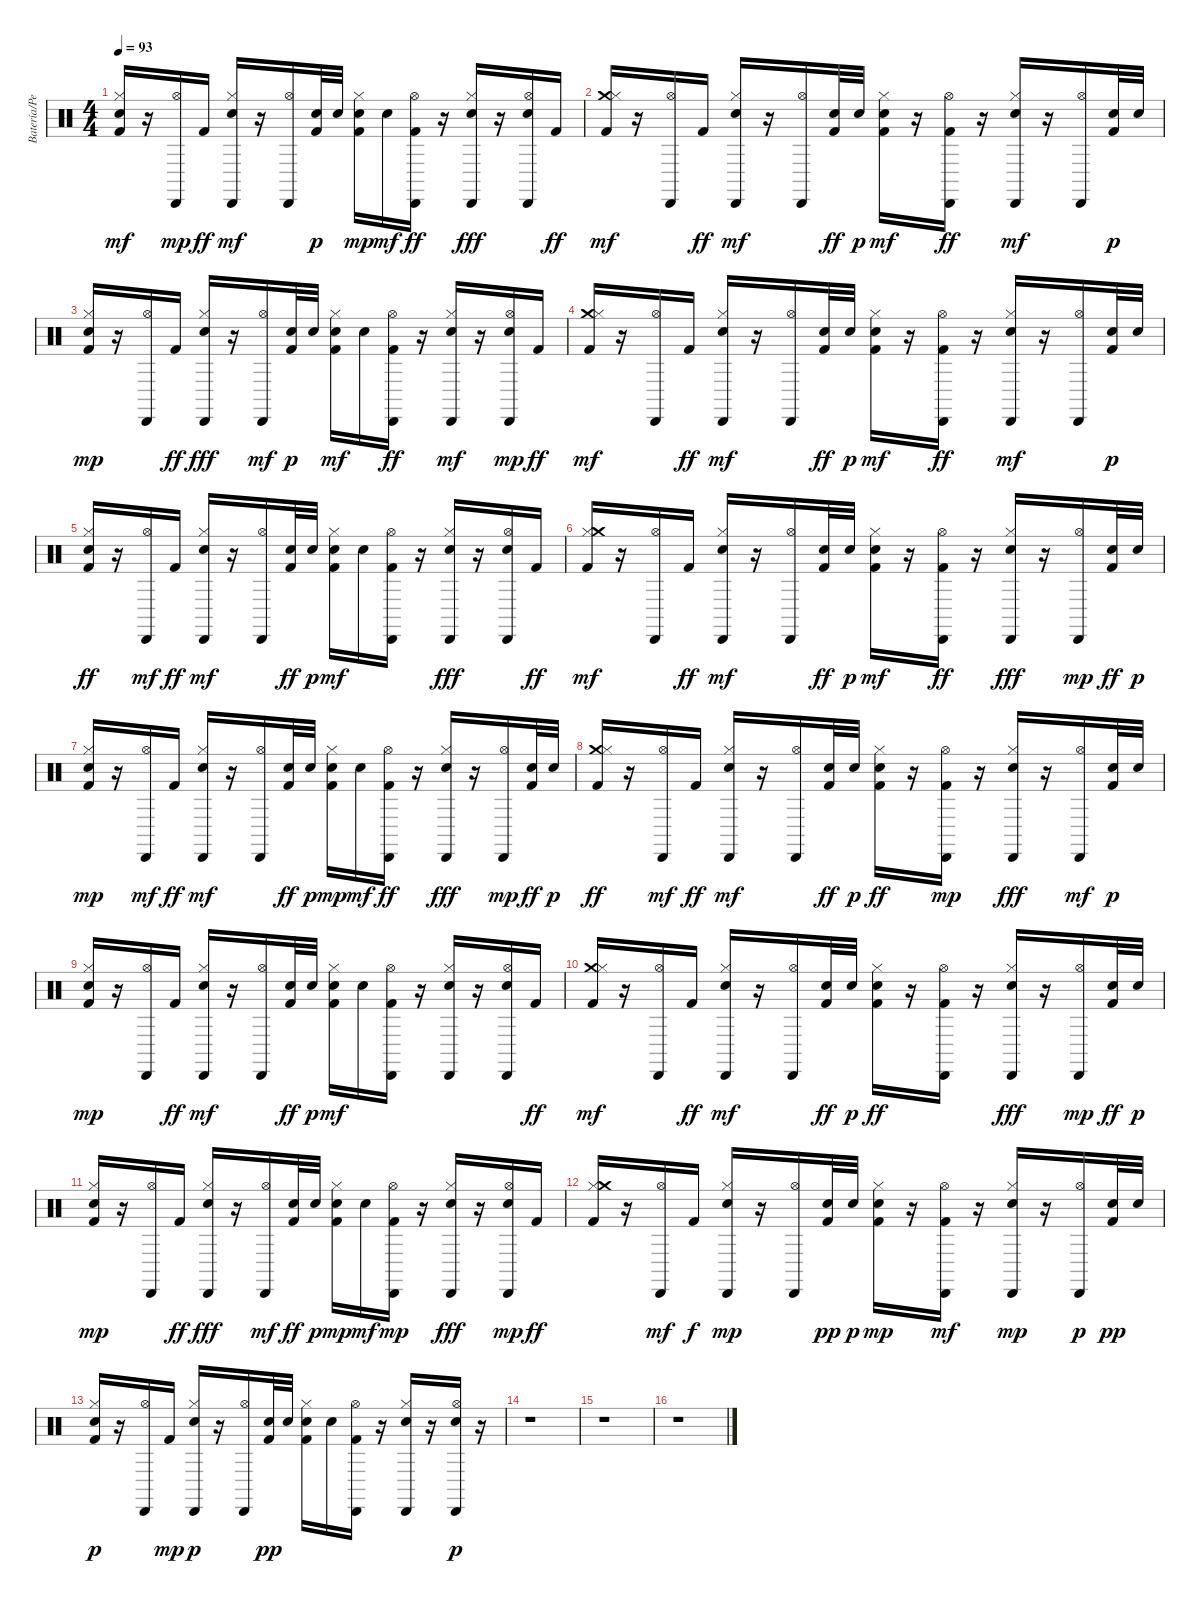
\track ("Batería/Percusión" "Batería/Pe") {instrument percussion}
\staff {score}
\articulation defaults
\ts (4 4)
\tempo 93
\clef neutral
\ks c
("Electric Snare (hit)" "Kick (hit) 2" "Hi-Hat (closed)").16{dy mf} r.16 ("Cabasa (hit)" "Hi-Hat (open)").16{dy mp} "Kick (hit) 2".16{dy ff} ("Cabasa (hit)" "Electric Snare (hit)" "Hi-Hat (closed)").16{dy mf} r.16 ("Hi-Hat (open)" "Cabasa (hit)").16 ("Kick (hit) 2" "Electric Snare (hit)").32{dy p} "Electric Snare (hit)".32 ("Hi-Hat (closed)" "Kick (hit) 2" "Electric Snare (hit)").16{dy mp} "Electric Snare (hit)".16{dy mf} ("Cabasa (hit)" "Hi-Hat (open)" "Kick (hit) 2").16{dy ff} r.16 ("Cabasa (hit)" "Hi-Hat (closed)" "Electric Snare (hit)").16{dy fff} r.16 ("Cabasa (hit)" "Hi-Hat (open)" "Electric Snare (hit)").16 "Kick (hit) 2".16{dy ff} |
("Crash medium (hit)" "Kick (hit) 2" "Hi-Hat (closed)").16{dy mf} r.16 ("Hi-Hat (open)" "Cabasa (hit)").16 "Kick (hit) 2".16{dy ff} ("Cabasa (hit)" "Electric Snare (hit)" "Hi-Hat (closed)").16{dy mf} r.16 ("Hi-Hat (open)" "Cabasa (hit)").16 ("Electric Snare (hit)" "Kick (hit) 2").32{dy ff} "Electric Snare (hit)".32{dy p} ("Kick (hit) 2" "Electric Snare (hit)" "Hi-Hat (closed)").16{dy mf} r.16 ("Hi-Hat (open)" "Cabasa (hit)" "Kick (hit) 2").16{dy ff} r.16 ("Cabasa (hit)" "Electric Snare (hit)" "Hi-Hat (closed)").16{dy mf} r.16 ("Hi-Hat (open)" "Cabasa (hit)").16 ("Kick (hit) 2" "Electric Snare (hit)").32{dy p} "Electric Snare (hit)".32 |
("Kick (hit) 2" "Hi-Hat (closed)" "Electric Snare (hit)").16{dy mp} r.16 ("Hi-Hat (open)" "Cabasa (hit)").16 "Kick (hit) 2".16{dy ff} ("Cabasa (hit)" "Hi-Hat (closed)" "Electric Snare (hit)").16{dy fff} r.16 ("Hi-Hat (open)" "Cabasa (hit)").16{dy mf} ("Kick (hit) 2" "Electric Snare (hit)").32{dy p} "Electric Snare (hit)".32 ("Kick (hit) 2" "Electric Snare (hit)" "Hi-Hat (closed)").16{dy mf} "Electric Snare (hit)".16 ("Hi-Hat (open)" "Cabasa (hit)" "Kick (hit) 2").16{dy ff} r.16 ("Cabasa (hit)" "Electric Snare (hit)" "Hi-Hat (closed)").16{dy mf} r.16 ("Electric Snare (hit)" "Cabasa (hit)" "Hi-Hat (open)").16{dy mp} "Kick (hit) 2".16{dy ff} |
("Crash medium (hit)" "Kick (hit) 2" "Hi-Hat (closed)").16{dy mf} r.16 ("Hi-Hat (open)" "Cabasa (hit)").16 "Kick (hit) 2".16{dy ff} ("Electric Snare (hit)" "Cabasa (hit)" "Hi-Hat (closed)").16{dy mf} r.16 ("Cabasa (hit)" "Hi-Hat (open)").16 ("Electric Snare (hit)" "Kick (hit) 2").32{dy ff} "Electric Snare (hit)".32{dy p} ("Kick (hit) 2" "Electric Snare (hit)" "Hi-Hat (closed)").16{dy mf} r.16 ("Hi-Hat (open)" "Cabasa (hit)" "Kick (hit) 2").16{dy ff} r.16 ("Cabasa (hit)" "Electric Snare (hit)" "Hi-Hat (closed)").16{dy mf} r.16 ("Cabasa (hit)" "Hi-Hat (open)").16 ("Kick (hit) 2" "Electric Snare (hit)").32{dy p} "Electric Snare (hit)".32 |
("Electric Snare (hit)" "Hi-Hat (closed)" "Kick (hit) 2").16{dy ff} r.16 ("Hi-Hat (open)" "Cabasa (hit)").16{dy mf} "Kick (hit) 2".16{dy ff} ("Electric Snare (hit)" "Cabasa (hit)" "Hi-Hat (closed)").16{dy mf} r.16 ("Cabasa (hit)" "Hi-Hat (open)").16 ("Electric Snare (hit)" "Kick (hit) 2").32{dy ff} "Electric Snare (hit)".32{dy p} ("Electric Snare (hit)" "Kick (hit) 2" "Hi-Hat (closed)").16{dy mf} "Electric Snare (hit)".16 ("Cabasa (hit)" "Kick (hit) 2" "Hi-Hat (open)").16 r.16 ("Cabasa (hit)" "Hi-Hat (closed)" "Electric Snare (hit)").16{dy fff} r.16 ("Cabasa (hit)" "Hi-Hat (open)" "Electric Snare (hit)").16 "Kick (hit) 2".16{dy ff} |
("Kick (hit) 2" "Hi-Hat (closed)" "Crash medium (hit)").16{dy mf} r.16 ("Cabasa (hit)" "Hi-Hat (open)").16 "Kick (hit) 2".16{dy ff} ("Electric Snare (hit)" "Hi-Hat (closed)" "Cabasa (hit)").16{dy mf} r.16 ("Hi-Hat (open)" "Cabasa (hit)").16 ("Electric Snare (hit)" "Kick (hit) 2").32{dy ff} "Electric Snare (hit)".32{dy p} ("Electric Snare (hit)" "Kick (hit) 2" "Hi-Hat (closed)").16{dy mf} r.16 ("Cabasa (hit)" "Hi-Hat (open)" "Kick (hit) 2").16{dy ff} r.16 ("Cabasa (hit)" "Hi-Hat (closed)" "Electric Snare (hit)").16{dy fff} r.16 ("Cabasa (hit)" "Hi-Hat (open)").16{dy mp} ("Electric Snare (hit)" "Kick (hit) 2").32{dy ff} "Electric Snare (hit)".32{dy p} |
("Hi-Hat (closed)" "Kick (hit) 2" "Electric Snare (hit)").16{dy mp} r.16 ("Hi-Hat (open)" "Cabasa (hit)").16{dy mf} "Kick (hit) 2".16{dy ff} ("Electric Snare (hit)" "Cabasa (hit)" "Hi-Hat (closed)").16{dy mf} r.16 ("Cabasa (hit)" "Hi-Hat (open)").16 ("Electric Snare (hit)" "Kick (hit) 2").32{dy ff} "Electric Snare (hit)".32{dy p} ("Hi-Hat (closed)" "Kick (hit) 2" "Electric Snare (hit)").16{dy mp} "Electric Snare (hit)".16{dy mf} ("Cabasa (hit)" "Hi-Hat (open)" "Kick (hit) 2").16{dy ff} r.16 ("Hi-Hat (closed)" "Cabasa (hit)" "Electric Snare (hit)").16{dy fff} r.16 ("Cabasa (hit)" "Hi-Hat (open)").16{dy mp} ("Electric Snare (hit)" "Kick (hit) 2").32{dy ff} "Electric Snare (hit)".32{dy p} |
("Crash medium (hit)" "Hi-Hat (closed)" "Kick (hit) 2").16{dy ff} r.16 ("Cabasa (hit)" "Hi-Hat (open)").16{dy mf} "Kick (hit) 2".16{dy ff} ("Electric Snare (hit)" "Cabasa (hit)" "Hi-Hat (closed)").16{dy mf} r.16 ("Cabasa (hit)" "Hi-Hat (open)").16 ("Electric Snare (hit)" "Kick (hit) 2").32{dy ff} "Electric Snare (hit)".32{dy p} ("Hi-Hat (closed)" "Electric Snare (hit)" "Kick (hit) 2").16{dy ff} r.16 ("Cabasa (hit)" "Kick (hit) 2" "Hi-Hat (open)").16{dy mp} r.16 ("Hi-Hat (closed)" "Cabasa (hit)" "Electric Snare (hit)").16{dy fff} r.16 ("Cabasa (hit)" "Hi-Hat (open)").16{dy mf} ("Kick (hit) 2" "Electric Snare (hit)").32{dy p} "Electric Snare (hit)".32 |
("Hi-Hat (closed)" "Kick (hit) 2" "Electric Snare (hit)").16{dy mp} r.16 ("Cabasa (hit)" "Hi-Hat (open)").16 "Kick (hit) 2".16{dy ff} ("Hi-Hat (closed)" "Electric Snare (hit)" "Cabasa (hit)").16{dy mf} r.16 ("Hi-Hat (open)" "Cabasa (hit)").16 ("Electric Snare (hit)" "Kick (hit) 2").32{dy ff} "Electric Snare (hit)".32{dy p} ("Kick (hit) 2" "Electric Snare (hit)" "Hi-Hat (closed)").16{dy mf} "Electric Snare (hit)".16 ("Kick (hit) 2" "Cabasa (hit)" "Hi-Hat (open)").16 r.16 ("Electric Snare (hit)" "Hi-Hat (closed)" "Cabasa (hit)").16 r.16 ("Electric Snare (hit)" "Cabasa (hit)" "Hi-Hat (open)").16 "Kick (hit) 2".16{dy ff} |
("Crash medium (hit)" "Kick (hit) 2" "Hi-Hat (closed)").16{dy mf} r.16 ("Cabasa (hit)" "Hi-Hat (open)").16 "Kick (hit) 2".16{dy ff} ("Electric Snare (hit)" "Hi-Hat (closed)" "Cabasa (hit)").16{dy mf} r.16 ("Hi-Hat (open)" "Cabasa (hit)").16 ("Electric Snare (hit)" "Kick (hit) 2").32{dy ff} "Electric Snare (hit)".32{dy p} ("Electric Snare (hit)" "Hi-Hat (closed)" "Kick (hit) 2").16{dy ff} r.16 ("Hi-Hat (open)" "Cabasa (hit)" "Kick (hit) 2").16 r.16 ("Cabasa (hit)" "Hi-Hat (closed)" "Electric Snare (hit)").16{dy fff} r.16 ("Cabasa (hit)" "Hi-Hat (open)").16{dy mp} ("Electric Snare (hit)" "Kick (hit) 2").32{dy ff} "Electric Snare (hit)".32{dy p} |
("Kick (hit) 2" "Hi-Hat (closed)" "Electric Snare (hit)").16{dy mp} r.16 ("Hi-Hat (open)" "Cabasa (hit)").16 "Kick (hit) 2".16{dy ff} ("Cabasa (hit)" "Hi-Hat (closed)" "Electric Snare (hit)").16{dy fff} r.16 ("Cabasa (hit)" "Hi-Hat (open)").16{dy mf} ("Electric Snare (hit)" "Kick (hit) 2").32{dy ff} "Electric Snare (hit)".32{dy p} ("Kick (hit) 2" "Hi-Hat (closed)" "Electric Snare (hit)").16{dy mp} "Electric Snare (hit)".16{dy mf} ("Hi-Hat (open)" "Kick (hit) 2" "Cabasa (hit)").16{dy mp} r.16 ("Cabasa (hit)" "Hi-Hat (closed)" "Electric Snare (hit)").16{dy fff} r.16 ("Electric Snare (hit)" "Cabasa (hit)" "Hi-Hat (open)").16{dy mp} "Kick (hit) 2".16{dy ff} |
("Hi-Hat (closed)" "Kick (hit) 2" "Crash medium (hit)").16 r.16 ("Cabasa (hit)" "Hi-Hat (open)").16{dy mf} "Kick (hit) 2".16{dy f} ("Electric Snare (hit)" "Hi-Hat (closed)" "Cabasa (hit)").16{dy mp} r.16 ("Hi-Hat (open)" "Cabasa (hit)").16 ("Electric Snare (hit)" "Kick (hit) 2").32{dy pp} "Electric Snare (hit)".32{dy p} ("Electric Snare (hit)" "Hi-Hat (closed)" "Kick (hit) 2").16{dy mp} r.16 ("Hi-Hat (open)" "Cabasa (hit)" "Kick (hit) 2").16{dy mf} r.16 ("Electric Snare (hit)" "Cabasa (hit)" "Hi-Hat (closed)").16{dy mp} r.16 ("Cabasa (hit)" "Hi-Hat (open)").16{dy p} ("Kick (hit) 2" "Electric Snare (hit)").32{dy pp} "Electric Snare (hit)".32 |
("Kick (hit) 2" "Electric Snare (hit)" "Hi-Hat (closed)").16{dy p} r.16 ("Cabasa (hit)" "Hi-Hat (open)").16 "Kick (hit) 2".16{dy mp} ("Cabasa (hit)" "Electric Snare (hit)" "Hi-Hat (closed)").16{dy p} r.16 ("Hi-Hat (open)" "Cabasa (hit)").16 ("Kick (hit) 2" "Electric Snare (hit)").32{dy pp} "Electric Snare (hit)".32 ("Hi-Hat (closed)" "Kick (hit) 2" "Electric Snare (hit)").16 "Electric Snare (hit)".16 ("Cabasa (hit)" "Kick (hit) 2" "Hi-Hat (open)").16 r.16 ("Electric Snare (hit)" "Cabasa (hit)" "Hi-Hat (closed)").16 r.16 ("Cabasa (hit)" "Hi-Hat (open)" "Electric Snare (hit)").16{dy p} r.16 |
r.1 |
r.1 |
r.1
